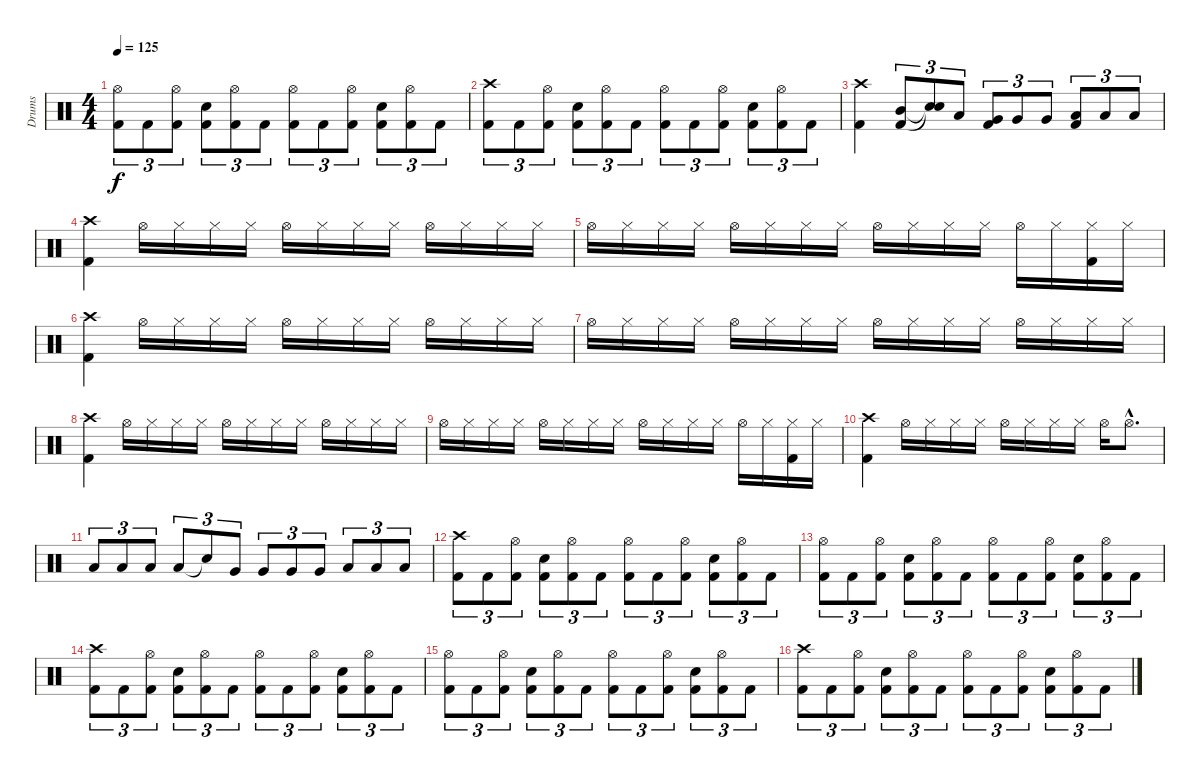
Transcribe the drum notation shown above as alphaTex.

\track ("Drums" "Drums") {instrument percussion}
\staff {score}
\articulation defaults
\ts (4 4)
\tempo 125
\clef neutral
\ks c
("Hi-Hat (open)" "Kick (hit) 2").8{tu (3 2) dy f} "Kick (hit) 2".8{tu (3 2)} ("Hi-Hat (open)" "Kick (hit) 2").8{tu (3 2)} ("Snare (hit) 2" "Kick (hit) 2").8{tu (3 2)} ("Hi-Hat (open)" "Kick (hit) 2").8{tu (3 2)} "Kick (hit) 2".8{tu (3 2)} ("Hi-Hat (open)" "Kick (hit) 2").8{tu (3 2)} "Kick (hit) 2".8{tu (3 2)} ("Hi-Hat (open)" "Kick (hit) 2").8{tu (3 2)} ("Snare (hit) 2" "Kick (hit) 2").8{tu (3 2)} ("Hi-Hat (open)" "Kick (hit) 2").8{tu (3 2)} "Kick (hit) 2".8{tu (3 2)} |
("Crash high (hit)" "Kick (hit) 2").8{tu (3 2)} "Kick (hit) 2".8{tu (3 2)} ("Hi-Hat (open)" "Kick (hit) 2").8{tu (3 2)} ("Snare (hit) 2" "Kick (hit) 2").8{tu (3 2)} ("Hi-Hat (open)" "Kick (hit) 2").8{tu (3 2)} "Kick (hit) 2".8{tu (3 2)} ("Hi-Hat (open)" "Kick (hit) 2").8{tu (3 2)} "Kick (hit) 2".8{tu (3 2)} ("Hi-Hat (open)" "Kick (hit) 2").8{tu (3 2)} ("Snare (hit) 2" "Kick (hit) 2").8{tu (3 2)} ("Hi-Hat (open)" "Kick (hit) 2").8{tu (3 2)} "Kick (hit) 2".8{tu (3 2)} |
("Crash high (hit)" "Kick (hit) 2").4 ("Kick (hit) 2" "Mid Tom (hit)").8{tu (3 2)} ("Snare (hit)"{t} "Snare (hit)"{t}).8{tu (3 2)} "Low Tom (hit)".8{tu (3 2)} ("Kick (hit) 2" "Very Low Tom (hit)").8{tu (3 2)} "Very Low Tom (hit)".8{tu (3 2)} "Very Low Tom (hit)".8{tu (3 2)} ("Kick (hit) 2" "Low Floor Tom (hit)").8{tu (3 2)} "Low Floor Tom (hit)".8{tu (3 2)} "Low Floor Tom (hit)".8{tu (3 2)} |
("Crash high (hit)" "Kick (hit) 2").4 "Hi-Hat (open)".16 "Hi-Hat (closed)".16 "Hi-Hat (closed)".16 "Hi-Hat (closed)".16 "Hi-Hat (open)".16 "Hi-Hat (closed)".16 "Hi-Hat (closed)".16 "Hi-Hat (closed)".16 "Hi-Hat (open)".16 "Hi-Hat (closed)".16 "Hi-Hat (closed)".16 "Hi-Hat (closed)".16 |
"Hi-Hat (open)".16 "Hi-Hat (closed)".16 "Hi-Hat (closed)".16 "Hi-Hat (closed)".16 "Hi-Hat (open)".16 "Hi-Hat (closed)".16 "Hi-Hat (closed)".16 "Hi-Hat (closed)".16 "Hi-Hat (open)".16 "Hi-Hat (closed)".16 "Hi-Hat (closed)".16 "Hi-Hat (closed)".16 "Hi-Hat (open)".16 "Hi-Hat (closed)".16 ("Hi-Hat (closed)" "Kick (hit) 2").16 "Hi-Hat (closed)".16 |
("Crash high (hit)" "Kick (hit) 2").4 "Hi-Hat (open)".16 "Hi-Hat (closed)".16 "Hi-Hat (closed)".16 "Hi-Hat (closed)".16 "Hi-Hat (open)".16 "Hi-Hat (closed)".16 "Hi-Hat (closed)".16 "Hi-Hat (closed)".16 "Hi-Hat (open)".16 "Hi-Hat (closed)".16 "Hi-Hat (closed)".16 "Hi-Hat (closed)".16 |
"Hi-Hat (open)".16 "Hi-Hat (closed)".16 "Hi-Hat (closed)".16 "Hi-Hat (closed)".16 "Hi-Hat (open)".16 "Hi-Hat (closed)".16 "Hi-Hat (closed)".16 "Hi-Hat (closed)".16 "Hi-Hat (open)".16 "Hi-Hat (closed)".16 "Hi-Hat (closed)".16 "Hi-Hat (closed)".16 "Hi-Hat (open)".16 "Hi-Hat (closed)".16 "Hi-Hat (closed)".16 "Hi-Hat (closed)".16 |
("Crash high (hit)" "Kick (hit) 2").4 "Hi-Hat (open)".16 "Hi-Hat (closed)".16 "Hi-Hat (closed)".16 "Hi-Hat (closed)".16 "Hi-Hat (open)".16 "Hi-Hat (closed)".16 "Hi-Hat (closed)".16 "Hi-Hat (closed)".16 "Hi-Hat (open)".16 "Hi-Hat (closed)".16 "Hi-Hat (closed)".16 "Hi-Hat (closed)".16 |
"Hi-Hat (open)".16 "Hi-Hat (closed)".16 "Hi-Hat (closed)".16 "Hi-Hat (closed)".16 "Hi-Hat (open)".16 "Hi-Hat (closed)".16 "Hi-Hat (closed)".16 "Hi-Hat (closed)".16 "Hi-Hat (open)".16 "Hi-Hat (closed)".16 "Hi-Hat (closed)".16 "Hi-Hat (closed)".16 "Hi-Hat (open)".16 "Hi-Hat (closed)".16 ("Hi-Hat (closed)" "Kick (hit) 2").16 "Hi-Hat (closed)".16 |
("Crash high (hit)" "Kick (hit) 2").4 "Hi-Hat (open)".16 "Hi-Hat (closed)".16 "Hi-Hat (closed)".16 "Hi-Hat (closed)".16 "Hi-Hat (open)".16 "Hi-Hat (closed)".16 "Hi-Hat (closed)".16 "Hi-Hat (closed)".16 "Hi-Hat (open)".16 "Hi-Hat (open)"{hac}.8{d} |
"Low Tom (hit)".8{tu (3 2)} "Low Tom (hit)".8{tu (3 2)} "Low Tom (hit)".8{tu (3 2)} "Low Tom (hit)".8{tu (3 2)} "Snare (hit)"{t}.8{tu (3 2)} "Very Low Tom (hit)".8{tu (3 2)} "Very Low Tom (hit)".8{tu (3 2)} "Very Low Tom (hit)".8{tu (3 2)} "Very Low Tom (hit)".8{tu (3 2)} "Low Floor Tom (hit)".8{tu (3 2)} "Low Floor Tom (hit)".8{tu (3 2)} "Low Floor Tom (hit)".8{tu (3 2)} |
("Crash high (hit)" "Kick (hit) 2").8{tu (3 2)} "Kick (hit) 2".8{tu (3 2)} ("Hi-Hat (open)" "Kick (hit) 2").8{tu (3 2)} ("Snare (hit) 2" "Kick (hit) 2").8{tu (3 2)} ("Hi-Hat (open)" "Kick (hit) 2").8{tu (3 2)} "Kick (hit) 2".8{tu (3 2)} ("Hi-Hat (open)" "Kick (hit) 2").8{tu (3 2)} "Kick (hit) 2".8{tu (3 2)} ("Hi-Hat (open)" "Kick (hit) 2").8{tu (3 2)} ("Snare (hit) 2" "Kick (hit) 2").8{tu (3 2)} ("Hi-Hat (open)" "Kick (hit) 2").8{tu (3 2)} "Kick (hit) 2".8{tu (3 2)} |
("Hi-Hat (open)" "Kick (hit) 2").8{tu (3 2)} "Kick (hit) 2".8{tu (3 2)} ("Hi-Hat (open)" "Kick (hit) 2").8{tu (3 2)} ("Snare (hit) 2" "Kick (hit) 2").8{tu (3 2)} ("Hi-Hat (open)" "Kick (hit) 2").8{tu (3 2)} "Kick (hit) 2".8{tu (3 2)} ("Hi-Hat (open)" "Kick (hit) 2").8{tu (3 2)} "Kick (hit) 2".8{tu (3 2)} ("Hi-Hat (open)" "Kick (hit) 2").8{tu (3 2)} ("Snare (hit) 2" "Kick (hit) 2").8{tu (3 2)} ("Hi-Hat (open)" "Kick (hit) 2").8{tu (3 2)} "Kick (hit) 2".8{tu (3 2)} |
("Crash high (hit)" "Kick (hit) 2").8{tu (3 2)} "Kick (hit) 2".8{tu (3 2)} ("Hi-Hat (open)" "Kick (hit) 2").8{tu (3 2)} ("Snare (hit) 2" "Kick (hit) 2").8{tu (3 2)} ("Hi-Hat (open)" "Kick (hit) 2").8{tu (3 2)} "Kick (hit) 2".8{tu (3 2)} ("Hi-Hat (open)" "Kick (hit) 2").8{tu (3 2)} "Kick (hit) 2".8{tu (3 2)} ("Hi-Hat (open)" "Kick (hit) 2").8{tu (3 2)} ("Snare (hit) 2" "Kick (hit) 2").8{tu (3 2)} ("Hi-Hat (open)" "Kick (hit) 2").8{tu (3 2)} "Kick (hit) 2".8{tu (3 2)} |
("Hi-Hat (open)" "Kick (hit) 2").8{tu (3 2)} "Kick (hit) 2".8{tu (3 2)} ("Hi-Hat (open)" "Kick (hit) 2").8{tu (3 2)} ("Snare (hit) 2" "Kick (hit) 2").8{tu (3 2)} ("Hi-Hat (open)" "Kick (hit) 2").8{tu (3 2)} "Kick (hit) 2".8{tu (3 2)} ("Hi-Hat (open)" "Kick (hit) 2").8{tu (3 2)} "Kick (hit) 2".8{tu (3 2)} ("Hi-Hat (open)" "Kick (hit) 2").8{tu (3 2)} ("Snare (hit) 2" "Kick (hit) 2").8{tu (3 2)} ("Hi-Hat (open)" "Kick (hit) 2").8{tu (3 2)} "Kick (hit) 2".8{tu (3 2)} |
("Crash high (hit)" "Kick (hit) 2").8{tu (3 2)} "Kick (hit) 2".8{tu (3 2)} ("Hi-Hat (open)" "Kick (hit) 2").8{tu (3 2)} ("Snare (hit) 2" "Kick (hit) 2").8{tu (3 2)} ("Hi-Hat (open)" "Kick (hit) 2").8{tu (3 2)} "Kick (hit) 2".8{tu (3 2)} ("Hi-Hat (open)" "Kick (hit) 2").8{tu (3 2)} "Kick (hit) 2".8{tu (3 2)} ("Hi-Hat (open)" "Kick (hit) 2").8{tu (3 2)} ("Snare (hit) 2" "Kick (hit) 2").8{tu (3 2)} ("Hi-Hat (open)" "Kick (hit) 2").8{tu (3 2)} "Kick (hit) 2".8{tu (3 2)}
